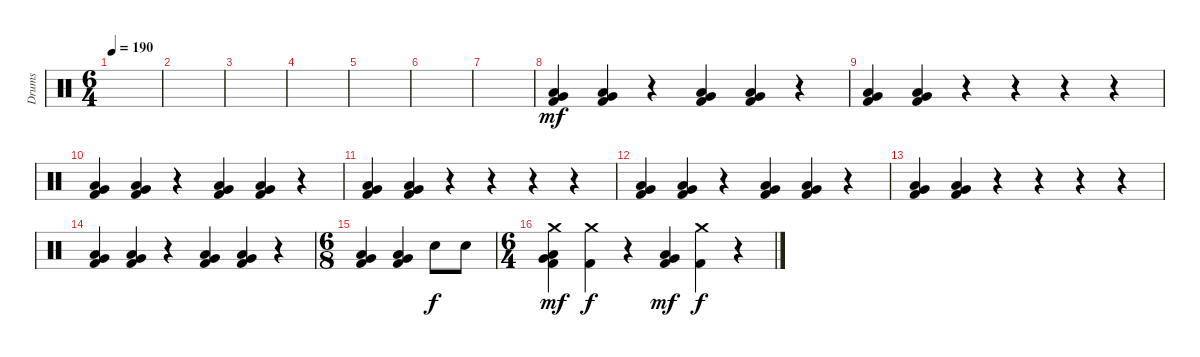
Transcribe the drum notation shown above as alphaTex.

\track ("Drums" "Drums") {instrument percussion}
\staff {score}
\articulation defaults
\ts (6 4)
\tempo 190
\clef neutral
\ks c
|
|
|
|
|
|
|
("Very Low Tom (hit)" "Low Floor Tom (hit)" "Kick (hit) 2").4{dy mf} ("Very Low Tom (hit)" "Low Floor Tom (hit)" "Kick (hit) 2").4 r.4 ("Very Low Tom (hit)" "Low Floor Tom (hit)" "Kick (hit) 2").4 ("Very Low Tom (hit)" "Low Floor Tom (hit)" "Kick (hit) 2").4 r.4 |
("Very Low Tom (hit)" "Low Floor Tom (hit)" "Kick (hit) 2").4 ("Very Low Tom (hit)" "Low Floor Tom (hit)" "Kick (hit) 2").4 r.4 r.4 r.4 r.4 |
("Very Low Tom (hit)" "Low Floor Tom (hit)" "Kick (hit) 2").4 ("Very Low Tom (hit)" "Low Floor Tom (hit)" "Kick (hit) 2").4 r.4 ("Very Low Tom (hit)" "Low Floor Tom (hit)" "Kick (hit) 2").4 ("Very Low Tom (hit)" "Low Floor Tom (hit)" "Kick (hit) 2").4 r.4 |
("Very Low Tom (hit)" "Low Floor Tom (hit)" "Kick (hit) 2").4 ("Very Low Tom (hit)" "Low Floor Tom (hit)" "Kick (hit) 2").4 r.4 r.4 r.4 r.4 |
("Very Low Tom (hit)" "Low Floor Tom (hit)" "Kick (hit) 2").4 ("Very Low Tom (hit)" "Low Floor Tom (hit)" "Kick (hit) 2").4 r.4 ("Very Low Tom (hit)" "Low Floor Tom (hit)" "Kick (hit) 2").4 ("Very Low Tom (hit)" "Low Floor Tom (hit)" "Kick (hit) 2").4 r.4 |
("Very Low Tom (hit)" "Low Floor Tom (hit)" "Kick (hit) 2").4 ("Very Low Tom (hit)" "Low Floor Tom (hit)" "Kick (hit) 2").4 r.4 r.4 r.4 r.4 |
("Very Low Tom (hit)" "Low Floor Tom (hit)" "Kick (hit) 2").4 ("Very Low Tom (hit)" "Low Floor Tom (hit)" "Kick (hit) 2").4 r.4 ("Very Low Tom (hit)" "Low Floor Tom (hit)" "Kick (hit) 2").4 ("Very Low Tom (hit)" "Low Floor Tom (hit)" "Kick (hit) 2").4 r.4 |
\ts (6 8)
("Very Low Tom (hit)" "Low Floor Tom (hit)" "Kick (hit) 2").4 ("Very Low Tom (hit)" "Low Floor Tom (hit)" "Kick (hit) 2").4 "Snare (hit) 2".8{dy f} "Snare (hit) 2".8 |
\ts (6 4)
("Crash medium (hit)" "Very Low Tom (hit)" "Low Floor Tom (hit)" "Kick (hit) 2").4{dy mf} ("Crash medium (hit)" "Kick (hit) 2").4{dy f} r.4 ("Very Low Tom (hit)" "Low Floor Tom (hit)" "Kick (hit) 2").4{dy mf} ("Crash medium (hit)" "Kick (hit) 2").4{dy f} r.4
